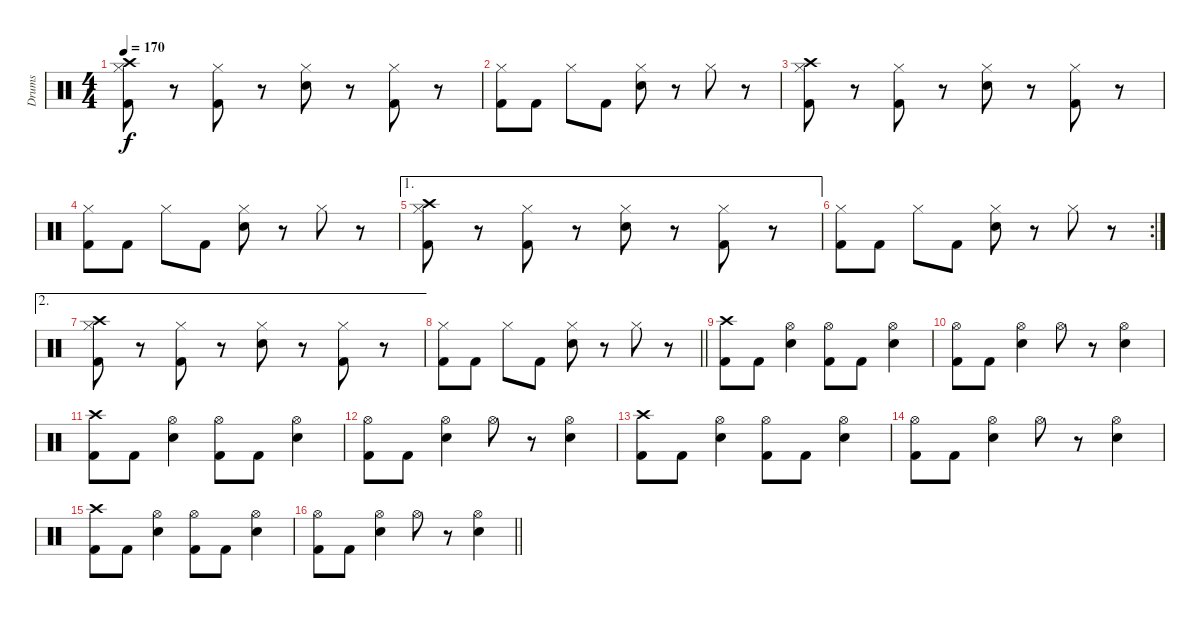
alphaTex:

\track ("Drums" "Drums") {instrument percussion}
\staff {score}
\articulation defaults
\ts (4 4)
\tempo 170
\clef neutral
\ks c
("Crash high (hit)" "Hi-Hat (closed)" "Kick (hit) 2").8{dy f} r.8 ("Hi-Hat (closed)" "Kick (hit) 2").8 r.8 ("Hi-Hat (closed)" "Snare (hit) 2").8 r.8 ("Hi-Hat (closed)" "Kick (hit) 2").8 r.8 |
("Hi-Hat (closed)" "Kick (hit) 2").8 "Kick (hit) 2".8 "Hi-Hat (closed)".8 "Kick (hit) 2".8 ("Hi-Hat (closed)" "Snare (hit) 2").8 r.8 "Hi-Hat (closed)".8 r.8 |
("Crash high (hit)" "Hi-Hat (closed)" "Kick (hit) 2").8 r.8 ("Hi-Hat (closed)" "Kick (hit) 2").8 r.8 ("Hi-Hat (closed)" "Snare (hit) 2").8 r.8 ("Hi-Hat (closed)" "Kick (hit) 2").8 r.8 |
("Hi-Hat (closed)" "Kick (hit) 2").8 "Kick (hit) 2".8 "Hi-Hat (closed)".8 "Kick (hit) 2".8 ("Hi-Hat (closed)" "Snare (hit) 2").8 r.8 "Hi-Hat (closed)".8 r.8 |
\ae 1
("Crash high (hit)" "Hi-Hat (closed)" "Kick (hit) 2").8 r.8 ("Hi-Hat (closed)" "Kick (hit) 2").8 r.8 ("Hi-Hat (closed)" "Snare (hit) 2").8 r.8 ("Hi-Hat (closed)" "Kick (hit) 2").8 r.8 |
\rc 2
("Hi-Hat (closed)" "Kick (hit) 2").8 "Kick (hit) 2".8 "Hi-Hat (closed)".8 "Kick (hit) 2".8 ("Hi-Hat (closed)" "Snare (hit) 2").8 r.8 "Hi-Hat (closed)".8 r.8 |
\ae 2
("Crash high (hit)" "Hi-Hat (closed)" "Kick (hit) 2").8 r.8 ("Hi-Hat (closed)" "Kick (hit) 2").8 r.8 ("Hi-Hat (closed)" "Snare (hit) 2").8 r.8 ("Hi-Hat (closed)" "Kick (hit) 2").8 r.8 |
\barLineRight lightlight
("Hi-Hat (closed)" "Kick (hit) 2").8 "Kick (hit) 2".8 "Hi-Hat (closed)".8 "Kick (hit) 2".8 ("Hi-Hat (closed)" "Snare (hit) 2").8 r.8 "Hi-Hat (closed)".8 r.8 |
("Crash high (hit)" "Kick (hit) 2").8 "Kick (hit) 2".8 ("Hi-Hat (open)" "Snare (hit) 2").4 ("Hi-Hat (open)" "Kick (hit) 2").8 "Kick (hit) 2".8 ("Hi-Hat (open)" "Snare (hit) 2").4 |
("Hi-Hat (open)" "Kick (hit) 2").8 "Kick (hit) 2".8 ("Hi-Hat (open)" "Snare (hit) 2").4 "Hi-Hat (open)".8 r.8 ("Hi-Hat (open)" "Snare (hit) 2").4 |
("Crash high (hit)" "Kick (hit) 2").8 "Kick (hit) 2".8 ("Hi-Hat (open)" "Snare (hit) 2").4 ("Hi-Hat (open)" "Kick (hit) 2").8 "Kick (hit) 2".8 ("Hi-Hat (open)" "Snare (hit) 2").4 |
("Hi-Hat (open)" "Kick (hit) 2").8 "Kick (hit) 2".8 ("Hi-Hat (open)" "Snare (hit) 2").4 "Hi-Hat (open)".8 r.8 ("Hi-Hat (open)" "Snare (hit) 2").4 |
("Crash high (hit)" "Kick (hit) 2").8 "Kick (hit) 2".8 ("Hi-Hat (open)" "Snare (hit) 2").4 ("Hi-Hat (open)" "Kick (hit) 2").8 "Kick (hit) 2".8 ("Hi-Hat (open)" "Snare (hit) 2").4 |
("Hi-Hat (open)" "Kick (hit) 2").8 "Kick (hit) 2".8 ("Hi-Hat (open)" "Snare (hit) 2").4 "Hi-Hat (open)".8 r.8 ("Hi-Hat (open)" "Snare (hit) 2").4 |
("Crash high (hit)" "Kick (hit) 2").8 "Kick (hit) 2".8 ("Hi-Hat (open)" "Snare (hit) 2").4 ("Hi-Hat (open)" "Kick (hit) 2").8 "Kick (hit) 2".8 ("Hi-Hat (open)" "Snare (hit) 2").4 |
\barLineRight lightlight
("Hi-Hat (open)" "Kick (hit) 2").8 "Kick (hit) 2".8 ("Hi-Hat (open)" "Snare (hit) 2").4 "Hi-Hat (open)".8 r.8 ("Hi-Hat (open)" "Snare (hit) 2").4
